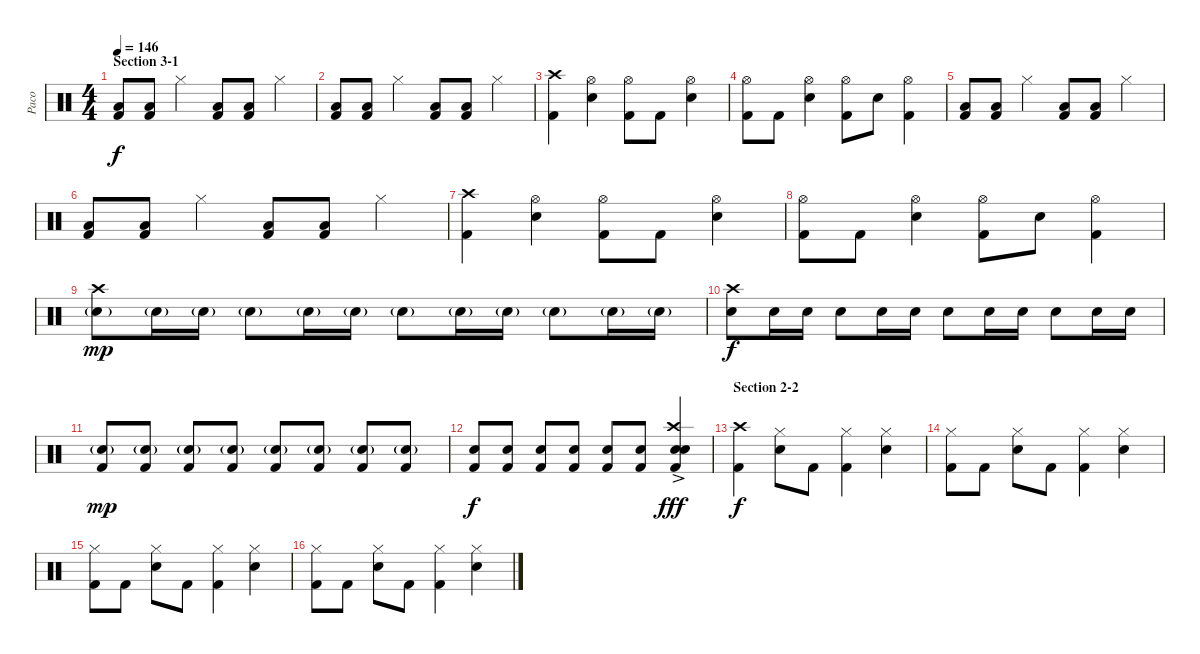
\track ("Paco" "Paco") {instrument percussion}
\staff {score}
\articulation defaults
\ts (4 4)
\section ("" "Section 3-1")
\tempo 146
\clef neutral
\ks c
("Low Tom (hit)" "Kick (hit) 2").8{dy f} ("Low Tom (hit)" "Kick (hit) 2").8 "Hi-Hat (closed)".4 ("Low Tom (hit)" "Kick (hit) 2").8 ("Low Tom (hit)" "Kick (hit) 2").8 "Hi-Hat (closed)".4 |
("Low Tom (hit)" "Kick (hit) 2").8 ("Low Tom (hit)" "Kick (hit) 2").8 "Hi-Hat (closed)".4 ("Low Tom (hit)" "Kick (hit) 2").8 ("Low Tom (hit)" "Kick (hit) 2").8 "Hi-Hat (closed)".4 |
("Crash high (hit)" "Kick (hit) 2").4 ("Hi-Hat (open)" "Snare (hit) 2").4 ("Hi-Hat (open)" "Kick (hit) 2").8 "Kick (hit) 2".8 ("Hi-Hat (open)" "Snare (hit) 2").4 |
("Hi-Hat (open)" "Kick (hit) 2").8 "Kick (hit) 2".8 ("Hi-Hat (open)" "Snare (hit) 2").4 ("Hi-Hat (open)" "Kick (hit) 2").8 "Snare (hit) 2".8 ("Hi-Hat (open)" "Kick (hit) 2").4 |
("Low Tom (hit)" "Kick (hit) 2").8 ("Low Tom (hit)" "Kick (hit) 2").8 "Hi-Hat (closed)".4 ("Low Tom (hit)" "Kick (hit) 2").8 ("Low Tom (hit)" "Kick (hit) 2").8 "Hi-Hat (closed)".4 |
("Low Tom (hit)" "Kick (hit) 2").8 ("Low Tom (hit)" "Kick (hit) 2").8 "Hi-Hat (closed)".4 ("Low Tom (hit)" "Kick (hit) 2").8 ("Low Tom (hit)" "Kick (hit) 2").8 "Hi-Hat (closed)".4 |
("Crash high (hit)" "Kick (hit) 2").4 ("Hi-Hat (open)" "Snare (hit) 2").4 ("Hi-Hat (open)" "Kick (hit) 2").8 "Kick (hit) 2".8 ("Hi-Hat (open)" "Snare (hit) 2").4 |
("Hi-Hat (open)" "Kick (hit) 2").8 "Kick (hit) 2".8 ("Hi-Hat (open)" "Snare (hit) 2").4 ("Hi-Hat (open)" "Kick (hit) 2").8 "Snare (hit) 2".8 ("Hi-Hat (open)" "Kick (hit) 2").4 |
("Crash high (hit)" "Snare (hit) 2"{g}).8{dy mp} "Snare (hit) 2"{g}.16 "Snare (hit) 2"{g}.16 "Snare (hit) 2"{g}.8 "Snare (hit) 2"{g}.16 "Snare (hit) 2"{g}.16 "Snare (hit) 2"{g}.8 "Snare (hit) 2"{g}.16 "Snare (hit) 2"{g}.16 "Snare (hit) 2"{g}.8 "Snare (hit) 2"{g}.16 "Snare (hit) 2"{g}.16 |
("Crash high (hit)" "Snare (hit) 2").8{dy f} "Snare (hit) 2".16 "Snare (hit) 2".16 "Snare (hit) 2".8 "Snare (hit) 2".16 "Snare (hit) 2".16 "Snare (hit) 2".8 "Snare (hit) 2".16 "Snare (hit) 2".16 "Snare (hit) 2".8 "Snare (hit) 2".16 "Snare (hit) 2".16 |
("Snare (hit) 2"{g} "Kick (hit) 2").8{dy mp} ("Snare (hit) 2"{g} "Kick (hit) 2").8 ("Snare (hit) 2"{g} "Kick (hit) 2").8 ("Snare (hit) 2"{g} "Kick (hit) 2").8 ("Snare (hit) 2"{g} "Kick (hit) 2").8 ("Snare (hit) 2"{g} "Kick (hit) 2").8 ("Snare (hit) 2"{g} "Kick (hit) 2").8 ("Snare (hit) 2"{g} "Kick (hit) 2").8 |
("Snare (hit) 2" "Kick (hit) 2").8{dy f} ("Snare (hit) 2" "Kick (hit) 2").8 ("Snare (hit) 2" "Kick (hit) 2").8 ("Snare (hit) 2" "Kick (hit) 2").8 ("Snare (hit) 2" "Kick (hit) 2").8 ("Snare (hit) 2" "Kick (hit) 2").8 ("Crash high (hit)" "Snare (hit) 2" "Snare (hit) 2" "Kick (hit) 2"{ac}).4{dy fff} |
\section ("" "Section 2-2")
("Crash high (hit)" "Kick (hit) 2").4{dy f} ("Hi-Hat (closed)" "Snare (hit) 2").8 "Kick (hit) 2".8 ("Hi-Hat (closed)" "Kick (hit) 2").4 ("Hi-Hat (closed)" "Snare (hit) 2").4 |
("Hi-Hat (closed)" "Kick (hit) 2").8 "Kick (hit) 2".8 ("Hi-Hat (closed)" "Snare (hit) 2").8 "Kick (hit) 2".8 ("Hi-Hat (closed)" "Kick (hit) 2").4 ("Hi-Hat (closed)" "Snare (hit) 2").4 |
("Hi-Hat (closed)" "Kick (hit) 2").8 "Kick (hit) 2".8 ("Hi-Hat (closed)" "Snare (hit) 2").8 "Kick (hit) 2".8 ("Hi-Hat (closed)" "Kick (hit) 2").4 ("Hi-Hat (closed)" "Snare (hit) 2").4 |
("Hi-Hat (closed)" "Kick (hit) 2").8 "Kick (hit) 2".8 ("Hi-Hat (closed)" "Snare (hit) 2").8 "Kick (hit) 2".8 ("Hi-Hat (closed)" "Kick (hit) 2").4 ("Hi-Hat (closed)" "Snare (hit) 2").4
